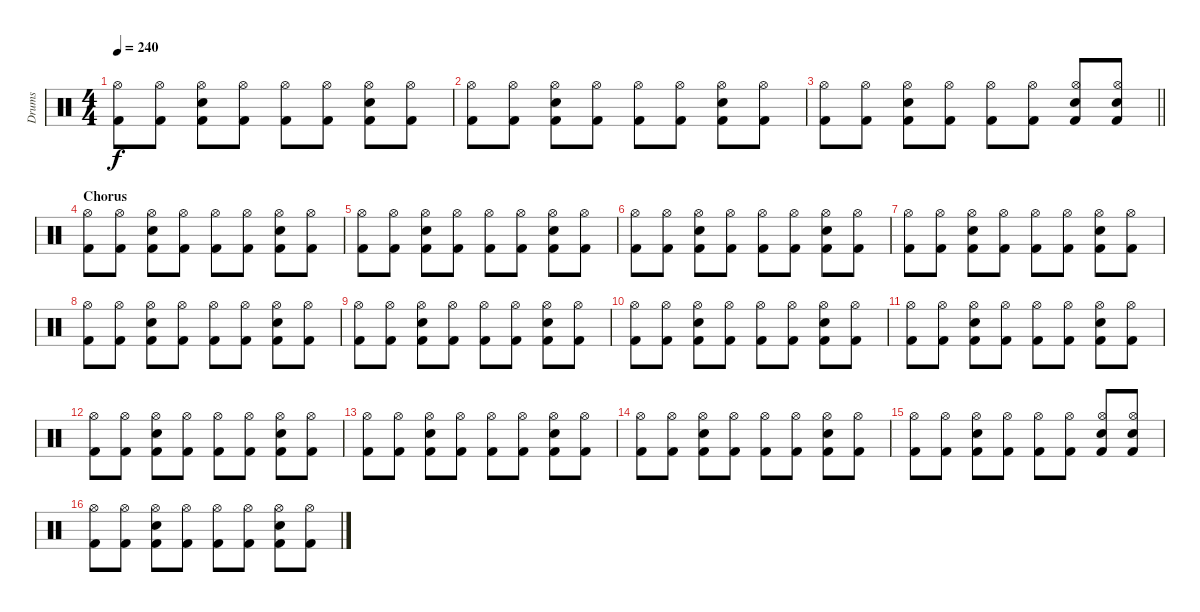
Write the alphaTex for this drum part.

\track ("Drums" "Drums") {instrument percussion}
\staff {score}
\articulation defaults
\ts (4 4)
\tempo 240
\clef neutral
\ks c
("Kick (hit) 2" "Hi-Hat (open)").8{dy f} ("Kick (hit) 2" "Hi-Hat (open)").8 ("Kick (hit) 2" "Snare (hit) 2" "Hi-Hat (open)").8 ("Kick (hit) 2" "Hi-Hat (open)").8 ("Kick (hit) 2" "Hi-Hat (open)").8 ("Kick (hit) 2" "Hi-Hat (open)").8 ("Kick (hit) 2" "Snare (hit) 2" "Hi-Hat (open)").8 ("Kick (hit) 2" "Hi-Hat (open)").8 |
("Kick (hit) 2" "Hi-Hat (open)").8 ("Kick (hit) 2" "Hi-Hat (open)").8 ("Kick (hit) 2" "Snare (hit) 2" "Hi-Hat (open)").8 ("Kick (hit) 2" "Hi-Hat (open)").8 ("Kick (hit) 2" "Hi-Hat (open)").8 ("Kick (hit) 2" "Hi-Hat (open)").8 ("Kick (hit) 2" "Snare (hit) 2" "Hi-Hat (open)").8 ("Kick (hit) 2" "Hi-Hat (open)").8 |
\barLineRight lightlight
("Kick (hit) 2" "Hi-Hat (open)").8 ("Kick (hit) 2" "Hi-Hat (open)").8 ("Kick (hit) 2" "Snare (hit) 2" "Hi-Hat (open)").8 ("Kick (hit) 2" "Hi-Hat (open)").8 ("Kick (hit) 2" "Hi-Hat (open)").8 ("Kick (hit) 2" "Hi-Hat (open)").8 ("Kick (hit) 2" "Snare (hit) 2" "Hi-Hat (open)").8 ("Kick (hit) 2" "Snare (hit) 2" "Hi-Hat (open)").8 |
\section ("" "Chorus")
("Kick (hit) 2" "Hi-Hat (open)").8 ("Kick (hit) 2" "Hi-Hat (open)").8 ("Kick (hit) 2" "Snare (hit) 2" "Hi-Hat (open)").8 ("Kick (hit) 2" "Hi-Hat (open)").8 ("Kick (hit) 2" "Hi-Hat (open)").8 ("Kick (hit) 2" "Hi-Hat (open)").8 ("Kick (hit) 2" "Snare (hit) 2" "Hi-Hat (open)").8 ("Kick (hit) 2" "Hi-Hat (open)").8 |
("Kick (hit) 2" "Hi-Hat (open)").8 ("Kick (hit) 2" "Hi-Hat (open)").8 ("Kick (hit) 2" "Snare (hit) 2" "Hi-Hat (open)").8 ("Kick (hit) 2" "Hi-Hat (open)").8 ("Kick (hit) 2" "Hi-Hat (open)").8 ("Kick (hit) 2" "Hi-Hat (open)").8 ("Kick (hit) 2" "Snare (hit) 2" "Hi-Hat (open)").8 ("Kick (hit) 2" "Hi-Hat (open)").8 |
("Kick (hit) 2" "Hi-Hat (open)").8 ("Kick (hit) 2" "Hi-Hat (open)").8 ("Kick (hit) 2" "Snare (hit) 2" "Hi-Hat (open)").8 ("Kick (hit) 2" "Hi-Hat (open)").8 ("Kick (hit) 2" "Hi-Hat (open)").8 ("Kick (hit) 2" "Hi-Hat (open)").8 ("Kick (hit) 2" "Snare (hit) 2" "Hi-Hat (open)").8 ("Kick (hit) 2" "Hi-Hat (open)").8 |
("Kick (hit) 2" "Hi-Hat (open)").8 ("Kick (hit) 2" "Hi-Hat (open)").8 ("Kick (hit) 2" "Snare (hit) 2" "Hi-Hat (open)").8 ("Kick (hit) 2" "Hi-Hat (open)").8 ("Kick (hit) 2" "Hi-Hat (open)").8 ("Kick (hit) 2" "Hi-Hat (open)").8 ("Kick (hit) 2" "Snare (hit) 2" "Hi-Hat (open)").8 ("Kick (hit) 2" "Hi-Hat (open)").8 |
("Kick (hit) 2" "Hi-Hat (open)").8 ("Kick (hit) 2" "Hi-Hat (open)").8 ("Kick (hit) 2" "Snare (hit) 2" "Hi-Hat (open)").8 ("Kick (hit) 2" "Hi-Hat (open)").8 ("Kick (hit) 2" "Hi-Hat (open)").8 ("Kick (hit) 2" "Hi-Hat (open)").8 ("Kick (hit) 2" "Snare (hit) 2" "Hi-Hat (open)").8 ("Kick (hit) 2" "Hi-Hat (open)").8 |
("Kick (hit) 2" "Hi-Hat (open)").8 ("Kick (hit) 2" "Hi-Hat (open)").8 ("Kick (hit) 2" "Snare (hit) 2" "Hi-Hat (open)").8 ("Kick (hit) 2" "Hi-Hat (open)").8 ("Kick (hit) 2" "Hi-Hat (open)").8 ("Kick (hit) 2" "Hi-Hat (open)").8 ("Kick (hit) 2" "Snare (hit) 2" "Hi-Hat (open)").8 ("Kick (hit) 2" "Hi-Hat (open)").8 |
("Kick (hit) 2" "Hi-Hat (open)").8 ("Kick (hit) 2" "Hi-Hat (open)").8 ("Kick (hit) 2" "Snare (hit) 2" "Hi-Hat (open)").8 ("Kick (hit) 2" "Hi-Hat (open)").8 ("Kick (hit) 2" "Hi-Hat (open)").8 ("Kick (hit) 2" "Hi-Hat (open)").8 ("Kick (hit) 2" "Snare (hit) 2" "Hi-Hat (open)").8 ("Kick (hit) 2" "Hi-Hat (open)").8 |
("Kick (hit) 2" "Hi-Hat (open)").8 ("Kick (hit) 2" "Hi-Hat (open)").8 ("Kick (hit) 2" "Snare (hit) 2" "Hi-Hat (open)").8 ("Kick (hit) 2" "Hi-Hat (open)").8 ("Kick (hit) 2" "Hi-Hat (open)").8 ("Kick (hit) 2" "Hi-Hat (open)").8 ("Kick (hit) 2" "Snare (hit) 2" "Hi-Hat (open)").8 ("Kick (hit) 2" "Hi-Hat (open)").8 |
("Kick (hit) 2" "Hi-Hat (open)").8 ("Kick (hit) 2" "Hi-Hat (open)").8 ("Kick (hit) 2" "Snare (hit) 2" "Hi-Hat (open)").8 ("Kick (hit) 2" "Hi-Hat (open)").8 ("Kick (hit) 2" "Hi-Hat (open)").8 ("Kick (hit) 2" "Hi-Hat (open)").8 ("Kick (hit) 2" "Snare (hit) 2" "Hi-Hat (open)").8 ("Kick (hit) 2" "Hi-Hat (open)").8 |
("Kick (hit) 2" "Hi-Hat (open)").8 ("Kick (hit) 2" "Hi-Hat (open)").8 ("Kick (hit) 2" "Snare (hit) 2" "Hi-Hat (open)").8 ("Kick (hit) 2" "Hi-Hat (open)").8 ("Kick (hit) 2" "Hi-Hat (open)").8 ("Kick (hit) 2" "Hi-Hat (open)").8 ("Kick (hit) 2" "Snare (hit) 2" "Hi-Hat (open)").8 ("Kick (hit) 2" "Hi-Hat (open)").8 |
("Kick (hit) 2" "Hi-Hat (open)").8 ("Kick (hit) 2" "Hi-Hat (open)").8 ("Kick (hit) 2" "Snare (hit) 2" "Hi-Hat (open)").8 ("Kick (hit) 2" "Hi-Hat (open)").8 ("Kick (hit) 2" "Hi-Hat (open)").8 ("Kick (hit) 2" "Hi-Hat (open)").8 ("Kick (hit) 2" "Snare (hit) 2" "Hi-Hat (open)").8 ("Kick (hit) 2" "Hi-Hat (open)").8 |
("Kick (hit) 2" "Hi-Hat (open)").8 ("Kick (hit) 2" "Hi-Hat (open)").8 ("Kick (hit) 2" "Snare (hit) 2" "Hi-Hat (open)").8 ("Kick (hit) 2" "Hi-Hat (open)").8 ("Kick (hit) 2" "Hi-Hat (open)").8 ("Kick (hit) 2" "Hi-Hat (open)").8 ("Kick (hit) 2" "Snare (hit) 2" "Hi-Hat (open)").8 ("Kick (hit) 2" "Snare (hit) 2" "Hi-Hat (open)").8 |
("Kick (hit) 2" "Hi-Hat (open)").8 ("Kick (hit) 2" "Hi-Hat (open)").8 ("Kick (hit) 2" "Snare (hit) 2" "Hi-Hat (open)").8 ("Kick (hit) 2" "Hi-Hat (open)").8 ("Kick (hit) 2" "Hi-Hat (open)").8 ("Kick (hit) 2" "Hi-Hat (open)").8 ("Kick (hit) 2" "Snare (hit) 2" "Hi-Hat (open)").8 ("Kick (hit) 2" "Hi-Hat (open)").8
